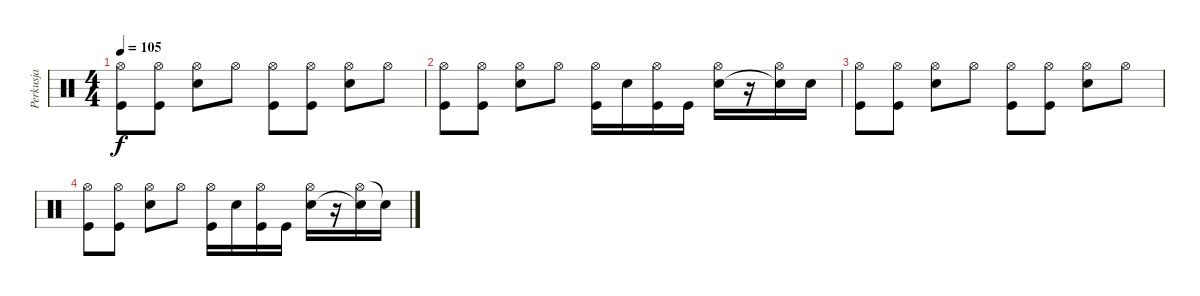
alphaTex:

\track ("Perkusja" "Perkusja") {instrument percussion}
\staff {score}
\articulation defaults
\ts (4 4)
\tempo 105
\clef neutral
\ks c
("Hi-Hat (open)" "Kick (hit)").8{dy f} ("Hi-Hat (open)" "Kick (hit)").8 ("Hi-Hat (open)" "Snare (hit) 2").8 "Hi-Hat (open)".8 ("Hi-Hat (open)" "Kick (hit)").8 ("Hi-Hat (open)" "Kick (hit)").8 ("Hi-Hat (open)" "Snare (hit) 2").8 "Hi-Hat (open)".8 |
("Hi-Hat (open)" "Kick (hit)").8 ("Hi-Hat (open)" "Kick (hit)").8 ("Hi-Hat (open)" "Snare (hit) 2").8 "Hi-Hat (open)".8 ("Hi-Hat (open)" "Kick (hit)").16 "Snare (hit) 2".16 ("Hi-Hat (open)" "Kick (hit)").16 "Kick (hit)".16 ("Hi-Hat (open)" "Snare (hit) 2").16 r.16 ("Hi-Hat (open)" "Snare (hit)"{t}).16 "Snare (hit) 2".16 |
("Hi-Hat (open)" "Kick (hit)").8 ("Hi-Hat (open)" "Kick (hit)").8 ("Hi-Hat (open)" "Snare (hit) 2").8 "Hi-Hat (open)".8 ("Hi-Hat (open)" "Kick (hit)").8 ("Hi-Hat (open)" "Kick (hit)").8 ("Hi-Hat (open)" "Snare (hit) 2").8 "Hi-Hat (open)".8 |
("Hi-Hat (open)" "Kick (hit)").8 ("Hi-Hat (open)" "Kick (hit)").8 ("Hi-Hat (open)" "Snare (hit) 2").8 "Hi-Hat (open)".8 ("Hi-Hat (open)" "Kick (hit)").16 "Snare (hit) 2".16 ("Hi-Hat (open)" "Kick (hit)").16 "Kick (hit)".16 ("Hi-Hat (open)" "Snare (hit) 2").16 r.16 ("Hi-Hat (open)" "Snare (hit)"{t}).16 "Snare (hit) 2"{t}.16
